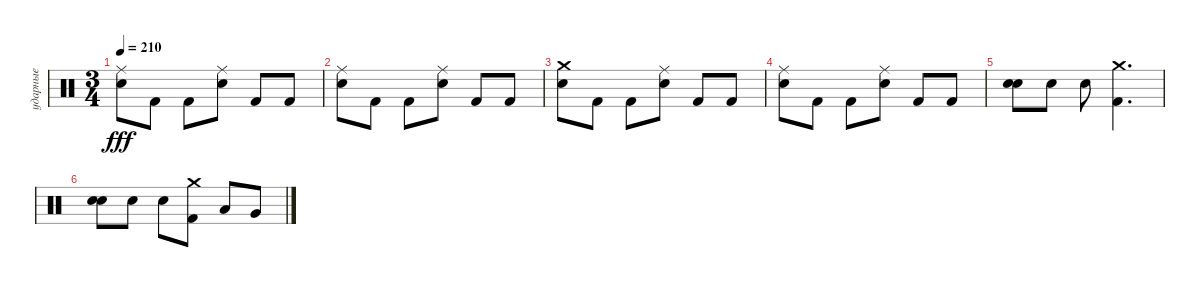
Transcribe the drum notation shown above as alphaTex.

\track ("ударные" "ударные") {instrument percussion}
\staff {score}
\articulation defaults
\ts (3 4)
\tempo 210
\clef neutral
\ks c
("Ride (middle)" "Snare (hit) 2").8{dy fff} "Kick (hit) 2".8 "Kick (hit) 2".8 ("Ride (middle)" "Snare (hit) 2").8 "Kick (hit) 2".8 "Kick (hit) 2".8 |
("Ride (middle)" "Snare (hit) 2").8 "Kick (hit) 2".8 "Kick (hit) 2".8 ("Ride (middle)" "Snare (hit) 2").8 "Kick (hit) 2".8 "Kick (hit) 2".8 |
("Crash medium (hit)" "Snare (hit) 2").8 "Kick (hit) 2".8 "Kick (hit) 2".8 ("Ride (middle)" "Snare (hit) 2").8 "Kick (hit) 2".8 "Kick (hit) 2".8 |
("Ride (middle)" "Snare (hit) 2").8 "Kick (hit) 2".8 "Kick (hit) 2".8 ("Ride (middle)" "Snare (hit) 2").8 "Kick (hit) 2".8 "Kick (hit) 2".8 |
("Snare (hit) 2" "Snare (hit) 2").8{bd 60} "Snare (hit) 2".8 "Snare (hit) 2".8 ("Crash medium (hit)" "Kick (hit) 2").4{d} |
("Snare (hit) 2" "Snare (hit) 2").8{bd 60} "Snare (hit) 2".8 "Snare (hit) 2".8 ("Crash medium (hit)" "Kick (hit) 2").8 "Low Tom (hit)".8 "Very Low Tom (hit)".8
